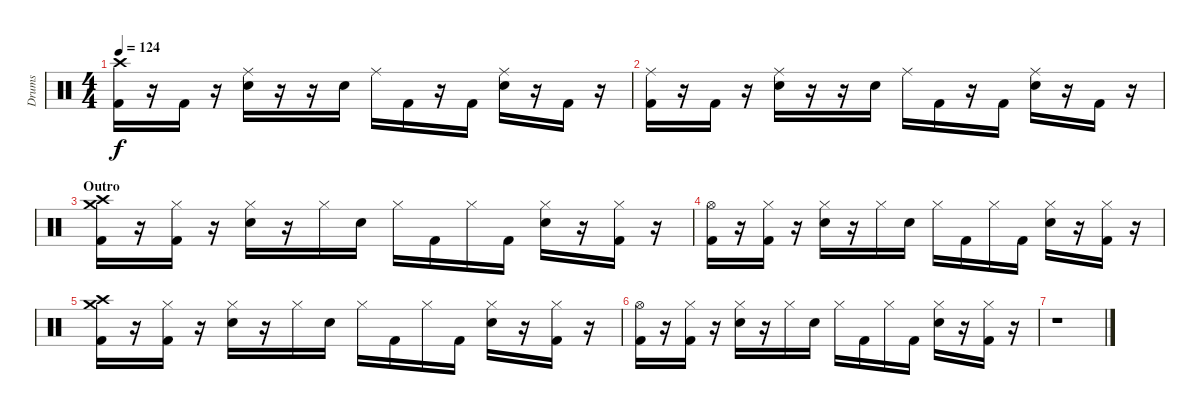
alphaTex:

\track ("Drums" "Drums") {instrument percussion}
\staff {score}
\articulation defaults
\ts (4 4)
\tempo 124
\clef neutral
\ks c
("Crash high (hit)" "Kick (hit) 2").16{dy f} r.16 "Kick (hit) 2".16 r.16 ("Ride (middle)" "Snare (hit) 2").16 r.16 r.16 "Snare (hit) 2".16 "Ride (middle)".16 "Kick (hit) 2".16 r.16 "Kick (hit) 2".16 ("Ride (middle)" "Snare (hit) 2").16 r.16 "Kick (hit) 2".16 r.16 |
("Ride (middle)" "Kick (hit) 2").16 r.16 "Kick (hit) 2".16 r.16 ("Ride (middle)" "Snare (hit) 2").16 r.16 r.16 "Snare (hit) 2".16 "Ride (middle)".16 "Kick (hit) 2".16 r.16 "Kick (hit) 2".16 ("Ride (middle)" "Snare (hit) 2").16 r.16 "Kick (hit) 2".16 r.16 |
\section ("" "Outro")
("Crash high (hit)" "Crash medium (hit)" "Kick (hit) 2").16 r.16 ("Hi-Hat (closed)" "Kick (hit) 2").16 r.16 ("Hi-Hat (closed)" "Snare (hit) 2").16 r.16 "Hi-Hat (closed)".16 "Snare (hit) 2".16 "Hi-Hat (closed)".16 "Kick (hit) 2".16 "Hi-Hat (closed)".16 "Kick (hit) 2".16 ("Hi-Hat (closed)" "Snare (hit) 2").16 r.16 ("Hi-Hat (closed)" "Kick (hit) 2").16 r.16 |
("Hi-Hat (open)" "Kick (hit) 2").16 r.16 ("Hi-Hat (closed)" "Kick (hit) 2").16 r.16 ("Hi-Hat (closed)" "Snare (hit) 2").16 r.16 "Hi-Hat (closed)".16 "Snare (hit) 2".16 "Hi-Hat (closed)".16 "Kick (hit) 2".16 "Hi-Hat (closed)".16 "Kick (hit) 2".16 ("Hi-Hat (closed)" "Snare (hit) 2").16 r.16 ("Hi-Hat (closed)" "Kick (hit) 2").16 r.16 |
("Crash high (hit)" "Crash medium (hit)" "Kick (hit) 2").16 r.16 ("Hi-Hat (closed)" "Kick (hit) 2").16 r.16 ("Hi-Hat (closed)" "Snare (hit) 2").16 r.16 "Hi-Hat (closed)".16 "Snare (hit) 2".16 "Hi-Hat (closed)".16 "Kick (hit) 2".16 "Hi-Hat (closed)".16 "Kick (hit) 2".16 ("Hi-Hat (closed)" "Snare (hit) 2").16 r.16 ("Hi-Hat (closed)" "Kick (hit) 2").16 r.16 |
("Hi-Hat (open)" "Kick (hit) 2").16 r.16 ("Hi-Hat (closed)" "Kick (hit) 2").16 r.16 ("Hi-Hat (closed)" "Snare (hit) 2").16 r.16 "Hi-Hat (closed)".16 "Snare (hit) 2".16 "Hi-Hat (closed)".16 "Kick (hit) 2".16 "Hi-Hat (closed)".16 "Kick (hit) 2".16 ("Hi-Hat (closed)" "Snare (hit) 2").16 r.16 ("Hi-Hat (closed)" "Kick (hit) 2").16 r.16 |
r.1
